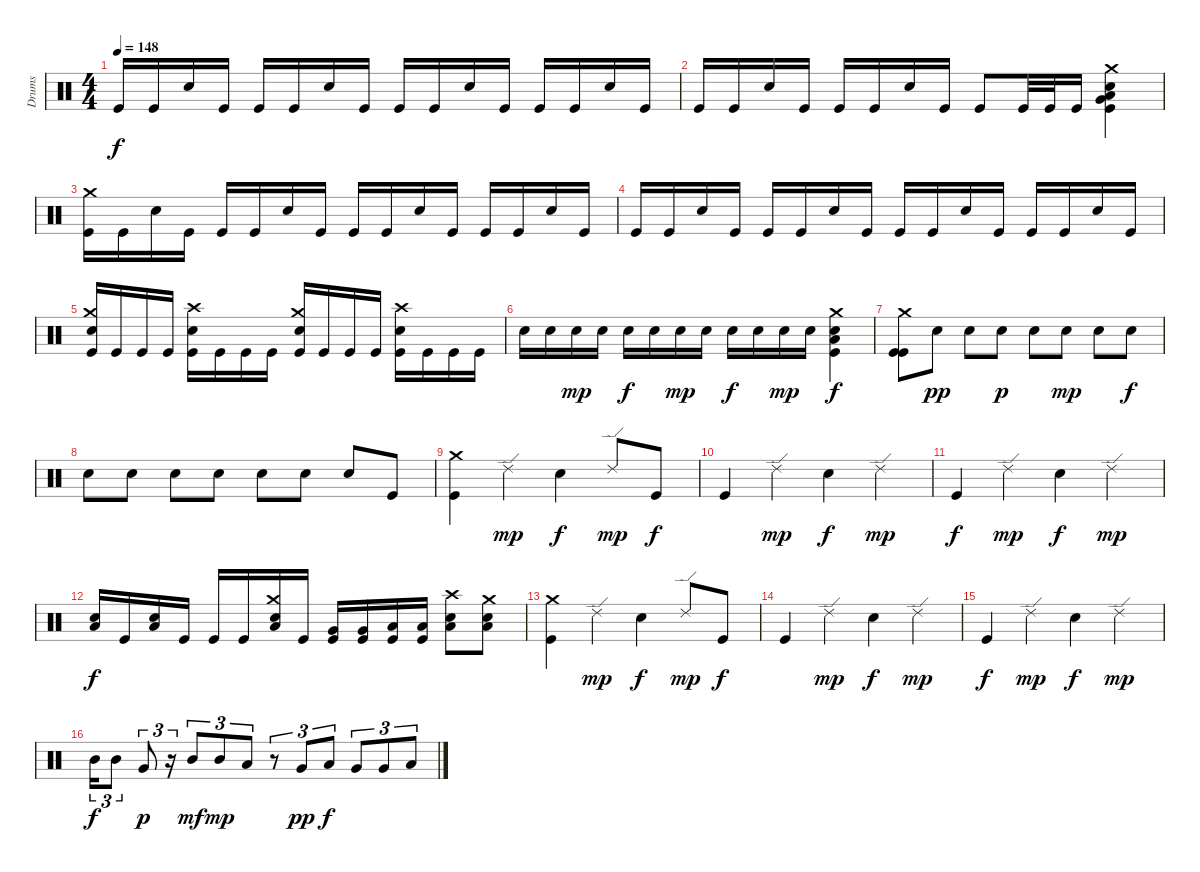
\track ("Drums" "Drums") {instrument percussion}
\staff {score}
\articulation defaults
\ts (4 4)
\tempo 148
\clef neutral
\ks c "Kick (hit)".16{dy f} "Kick (hit)".16 "Snare (hit) 2".16 "Kick (hit)".16 "Kick (hit)".16 "Kick (hit)".16 "Snare (hit) 2".16 "Kick (hit)".16 "Kick (hit)".16 "Kick (hit)".16 "Snare (hit) 2".16 "Kick (hit)".16 "Kick (hit)".16 "Kick (hit)".16 "Snare (hit) 2".16 "Kick (hit)".16
|
"Kick (hit)".16 "Kick (hit)".16 "Snare (hit) 2".16 "Kick (hit)".16 "Kick (hit)".16 "Kick (hit)".16 "Snare (hit) 2".16 "Kick (hit)".16 "Kick (hit)".8 "Kick (hit)".32 "Kick (hit)".32 "Kick (hit)".16 ("Kick (hit)" "Snare (hit) 2" "Low Floor Tom (hit)" "Very Low Tom (hit)" "Crash medium (hit)").4 |
("Kick (hit)" "Crash medium (hit)").16 "Kick (hit)".16 "Snare (hit) 2".16 "Kick (hit)".16 "Kick (hit)".16 "Kick (hit)".16 "Snare (hit) 2".16 "Kick (hit)".16 "Kick (hit)".16 "Kick (hit)".16 "Snare (hit) 2".16 "Kick (hit)".16 "Kick (hit)".16 "Kick (hit)".16 "Snare (hit) 2".16 "Kick (hit)".16 |
"Kick (hit)".16 "Kick (hit)".16 "Snare (hit) 2".16 "Kick (hit)".16 "Kick (hit)".16 "Kick (hit)".16 "Snare (hit) 2".16 "Kick (hit)".16 "Kick (hit)".16 "Kick (hit)".16 "Snare (hit) 2".16 "Kick (hit)".16 "Kick (hit)".16 "Kick (hit)".16 "Snare (hit) 2".16 "Kick (hit)".16 |
("Kick (hit)" "Crash medium (hit)" "Electric Snare (hit)").16 "Kick (hit)".16 "Kick (hit)".16 "Kick (hit)".16 ("Kick (hit)" "Crash high (hit)" "Electric Snare (hit)").16 "Kick (hit)".16 "Kick (hit)".16 "Kick (hit)".16 ("Kick (hit)" "Crash medium (hit)" "Electric Snare (hit)").16 "Kick (hit)".16 "Kick (hit)".16 "Kick (hit)".16 ("Kick (hit)" "Crash high (hit)" "Electric Snare (hit)").16 "Kick (hit)".16 "Kick (hit)".16 "Kick (hit)".16 |
"Electric Snare (hit)".16 "Electric Snare (hit)".16 "Electric Snare (hit)".16{dy mp} "Electric Snare (hit)".16 "Electric Snare (hit)".16{dy f} "Electric Snare (hit)".16 "Electric Snare (hit)".16{dy mp} "Electric Snare (hit)".16 "Electric Snare (hit)".16{dy f} "Electric Snare (hit)".16 "Electric Snare (hit)".16{dy mp} "Electric Snare (hit)".16 ("Snare (hit) 2" "Crash medium (hit)" "Kick (hit)" "Low Floor Tom (hit)").4{dy f} |
("Kick (hit)" "Crash medium (hit)" "Kick (hit)").8 "Electric Snare (hit)".8{dy pp} "Electric Snare (hit)".8 "Electric Snare (hit)".8{dy p} "Electric Snare (hit)".8 "Electric Snare (hit)".8{dy mp} "Electric Snare (hit)".8 "Electric Snare (hit)".8{dy f} |
"Electric Snare (hit)".8 "Electric Snare (hit)".8 "Electric Snare (hit)".8 "Electric Snare (hit)".8 "Electric Snare (hit)".8 "Electric Snare (hit)".8 "Electric Snare (hit)".8 "Kick (hit)".8 |
("Kick (hit)" "Crash medium (hit)").4 "Ride (edge) 2".4{dy mp} "Snare (hit) 2".4{dy f} "Ride (edge) 2".8{dy mp} "Kick (hit)".8{dy f} |
"Kick (hit)".4 "Ride (edge) 2".4{dy mp} "Snare (hit) 2".4{dy f} "Ride (edge) 2".4{dy mp} |
"Kick (hit)".4{dy f} "Ride (edge) 2".4{dy mp} "Snare (hit) 2".4{dy f} "Ride (edge) 2".4{dy mp} |
("Snare (hit) 2" "Low Floor Tom (hit)").16{dy f} "Kick (hit)".16 ("Snare (hit) 2" "Low Floor Tom (hit)").16 "Kick (hit)".16 "Kick (hit)".16 "Kick (hit)".16 ("Snare (hit) 2" "Crash medium (hit)" "Low Tom (hit)").16 "Kick (hit)".16 ("Kick (hit)" "Very Low Tom (hit)").16 ("Kick (hit)" "Very Low Tom (hit)").16 ("Kick (hit)" "Low Floor Tom (hit)").16 ("Kick (hit)" "Low Floor Tom (hit)").16 ("Snare (hit) 2" "Crash high (hit)" "Low Floor Tom (hit)").8 ("Snare (hit) 2" "Crash medium (hit)" "Low Floor Tom (hit)").8 |
("Kick (hit)" "Crash medium (hit)").4 "Ride (edge) 2".4{dy mp} "Snare (hit) 2".4{dy f} "Ride (edge) 2".8{dy mp} "Kick (hit)".8{dy f} |
"Kick (hit)".4 "Ride (edge) 2".4{dy mp} "Snare (hit) 2".4{dy f} "Ride (edge) 2".4{dy mp} |
"Kick (hit)".4{dy f} "Ride (edge) 2".4{dy mp} "Snare (hit) 2".4{dy f} "Ride (edge) 2".4{dy mp} |
"Mid Tom (hit)".16{tu (3 2) dy f} "Mid Tom (hit)".8{tu (3 2)} "Very Low Tom (hit)".8{tu (3 2) dy p} r.16{tu (3 2)} "Mid Tom (hit)".8{tu (3 2) dy mf} "Mid Tom (hit)".8{tu (3 2) dy mp} "Low Tom (hit)".8{tu (3 2)} r.8{tu (3 2)} "Very Low Tom (hit)".8{tu (3 2) dy pp} "Low Tom (hit)".8{tu (3 2) dy f} "Very Low Tom (hit)".8{tu (3 2)} "Very Low Tom (hit)".8{tu (3 2)} "Low Floor Tom (hit)".8{tu (3 2)}
